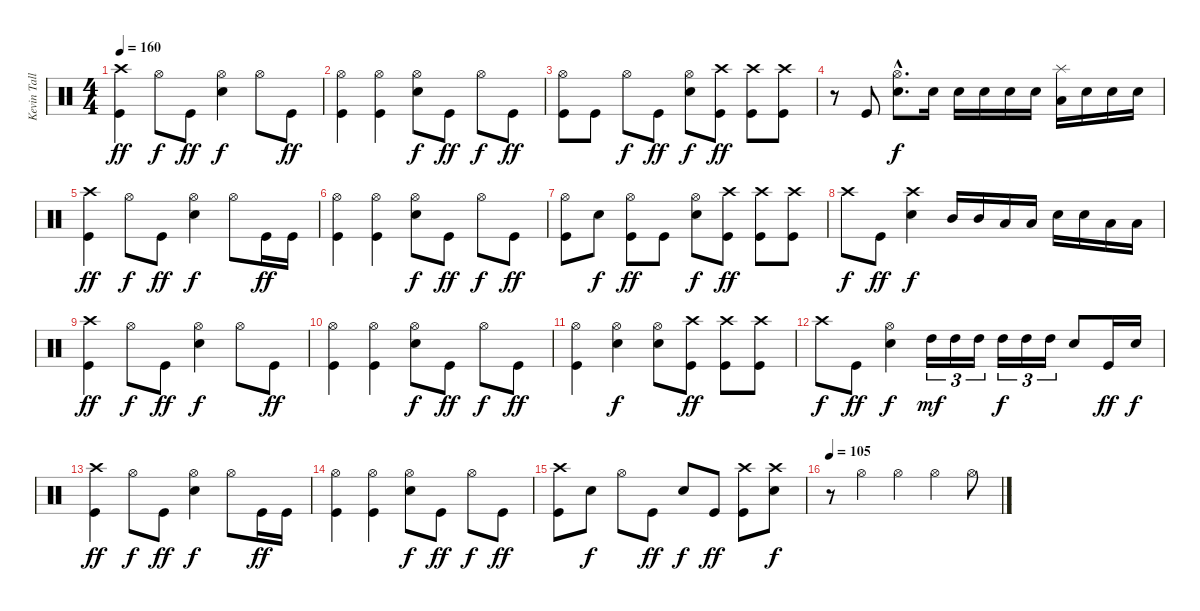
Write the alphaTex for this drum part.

\track ("Kevin Talley" "Kevin Tall") {instrument percussion}
\staff {score}
\articulation defaults
\ts (4 4)
\tempo 160
\clef neutral
\ks c
("Crash high (hit)" "Kick (hit)").4{dy ff} "Hi-Hat (open)".8{dy f} "Kick (hit)".8{dy ff} ("Hi-Hat (open)" "Electric Snare (hit)").4{dy f} "Hi-Hat (open)".8 "Kick (hit)".8{dy ff} |
("Hi-Hat (open)" "Kick (hit)").4 ("Hi-Hat (open)" "Kick (hit)").4 ("Hi-Hat (open)" "Electric Snare (hit)").8{dy f} "Kick (hit)".8{dy ff} "Hi-Hat (open)".8{dy f} "Kick (hit)".8{dy ff} |
("Hi-Hat (open)" "Kick (hit)").8 "Kick (hit)".8 "Hi-Hat (open)".8{dy f} "Kick (hit)".8{dy ff} ("Hi-Hat (open)" "Electric Snare (hit)").8{dy f} ("Crash high (hit)" "Kick (hit)").8{dy ff} ("Crash high (hit)" "Kick (hit)").8 ("Crash high (hit)" "Kick (hit)").8 |
r.8 "Kick (hit)".8 ("Hi-Hat (open)"{hac} "Electric Snare (hit)"{hac}).8{d dy f} "Electric Snare (hit)".16 "Electric Snare (hit)".16 "Electric Snare (hit)".16 "Electric Snare (hit)".16 "Electric Snare (hit)".16 ("Splash (hit)" "Low Tom (hit)").16 "Electric Snare (hit)".16 "Electric Snare (hit)".16 "Electric Snare (hit)".16 |
("Crash high (hit)" "Kick (hit)").4{dy ff} "Hi-Hat (open)".8{dy f} "Kick (hit)".8{dy ff} ("Hi-Hat (open)" "Electric Snare (hit)").4{dy f} "Hi-Hat (open)".8 "Kick (hit)".16{dy ff} "Kick (hit)".16 |
("Hi-Hat (open)" "Kick (hit)").4 ("Hi-Hat (open)" "Kick (hit)").4 ("Hi-Hat (open)" "Electric Snare (hit)").8{dy f} "Kick (hit)".8{dy ff} "Hi-Hat (open)".8{dy f} "Kick (hit)".8{dy ff} |
("Hi-Hat (open)" "Kick (hit)").8 "Electric Snare (hit)".8{dy f} ("Hi-Hat (open)" "Kick (hit)").8{dy ff} "Kick (hit)".8 ("Hi-Hat (open)" "Electric Snare (hit)").8{dy f} ("Crash high (hit)" "Kick (hit)").8{dy ff} ("Crash high (hit)" "Kick (hit)").8 ("Crash high (hit)" "Kick (hit)").8 |
"Crash high (hit)".8{dy f} "Kick (hit)".8{dy ff} ("Crash high (hit)" "Electric Snare (hit)").4{dy f} "Mid Tom (hit)".16 "Mid Tom (hit)".16 "Low Tom (hit)".16 "Low Tom (hit)".16 "Electric Snare (hit)".16 "Electric Snare (hit)".16 "Low Floor Tom (hit)".16 "Low Floor Tom (hit)".16 |
("Crash high (hit)" "Kick (hit)").4{dy ff} "Hi-Hat (open)".8{dy f} "Kick (hit)".8{dy ff} ("Hi-Hat (open)" "Electric Snare (hit)").4{dy f} "Hi-Hat (open)".8 "Kick (hit)".8{dy ff} |
("Hi-Hat (open)" "Kick (hit)").4 ("Hi-Hat (open)" "Kick (hit)").4 ("Hi-Hat (open)" "Electric Snare (hit)").8{dy f} "Kick (hit)".8{dy ff} "Hi-Hat (open)".8{dy f} "Kick (hit)".8{dy ff} |
("Hi-Hat (open)" "Kick (hit)").4 ("Hi-Hat (open)" "Electric Snare (hit)").4{dy f} ("Hi-Hat (open)" "Electric Snare (hit)").8 ("Crash high (hit)" "Kick (hit)").8{dy ff} ("Crash high (hit)" "Kick (hit)").8 ("Crash high (hit)" "Kick (hit)").8 |
"Crash high (hit)".8{dy f} "Kick (hit)".8{dy ff} ("Hi-Hat (open)" "Electric Snare (hit)").4{dy f} "High Tom (hit)".16{tu (3 2) dy mf} "High Tom (hit)".16{tu (3 2)} "High Tom (hit)".16{tu (3 2)} "High Tom (hit)".16{tu (3 2) dy f} "High Tom (hit)".16{tu (3 2)} "High Tom (hit)".16{tu (3 2)} "Electric Snare (hit)".8 "Kick (hit)".16{dy ff} "Electric Snare (hit)".16{dy f} |
("Crash high (hit)" "Kick (hit)").4{dy ff} "Hi-Hat (open)".8{dy f} "Kick (hit)".8{dy ff} ("Hi-Hat (open)" "Electric Snare (hit)").4{dy f} "Hi-Hat (open)".8 "Kick (hit)".16{dy ff} "Kick (hit)".16 |
("Hi-Hat (open)" "Kick (hit)").4 ("Hi-Hat (open)" "Kick (hit)").4 ("Hi-Hat (open)" "Electric Snare (hit)").8{dy f} "Kick (hit)".8{dy ff} "Hi-Hat (open)".8{dy f} "Kick (hit)".8{dy ff} |
("Crash high (hit)" "Kick (hit)").8 "Electric Snare (hit)".8{dy f} "Hi-Hat (open)".8 "Kick (hit)".8{dy ff} "Electric Snare (hit)".8{dy f} "Kick (hit)".8{dy ff} ("Crash high (hit)" "Kick (hit)").8 ("Crash high (hit)" "Electric Snare (hit)").8{dy f} |
\tempo 105
r.8 "Hi-Hat (open)".4 "Hi-Hat (open)".4 "Hi-Hat (open)".4 "Hi-Hat (open)".8
